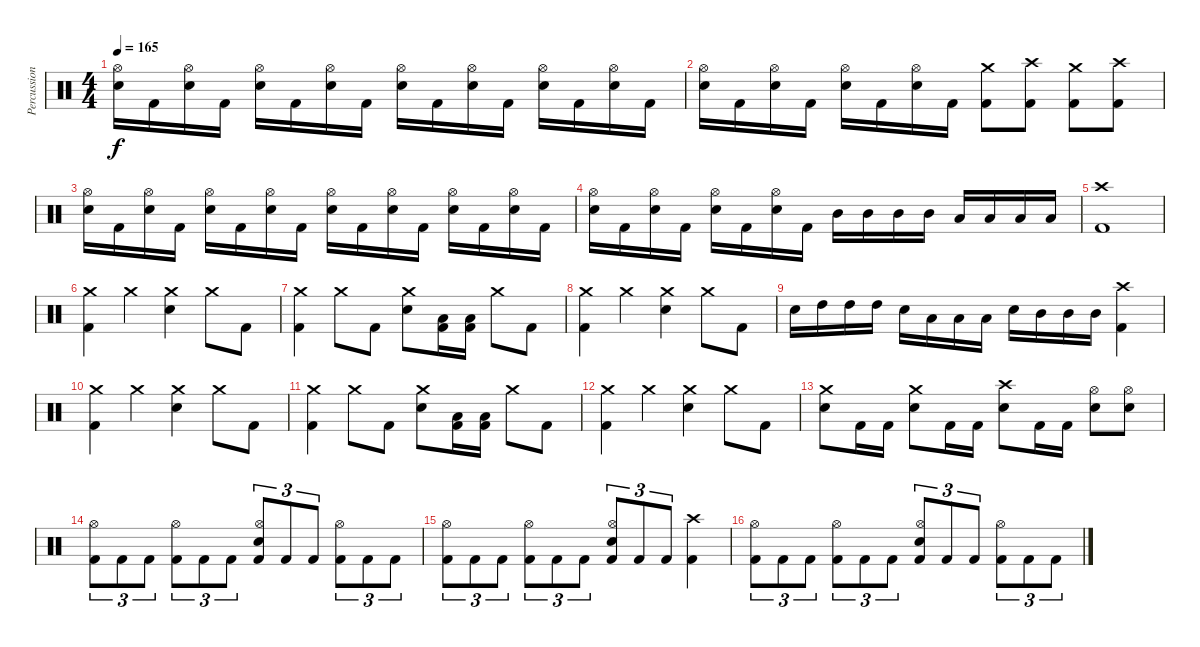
\track ("Percussion" "Percussion") {instrument percussion}
\staff {score}
\articulation defaults
\ts (4 4)
\tempo 165
\clef neutral
\ks c
("Snare (hit) 2" "Hi-Hat (open)").16{dy f} "Kick (hit) 2".16 ("Snare (hit) 2" "Hi-Hat (open)").16 "Kick (hit) 2".16 ("Snare (hit) 2" "Hi-Hat (open)").16 "Kick (hit) 2".16 ("Snare (hit) 2" "Hi-Hat (open)").16 "Kick (hit) 2".16 ("Snare (hit) 2" "Hi-Hat (open)").16 "Kick (hit) 2".16 ("Snare (hit) 2" "Hi-Hat (open)").16 "Kick (hit) 2".16 ("Snare (hit) 2" "Hi-Hat (open)").16 "Kick (hit) 2".16 ("Snare (hit) 2" "Hi-Hat (open)").16 "Kick (hit) 2".16 |
("Snare (hit) 2" "Hi-Hat (open)").16 "Kick (hit) 2".16 ("Snare (hit) 2" "Hi-Hat (open)").16 "Kick (hit) 2".16 ("Snare (hit) 2" "Hi-Hat (open)").16 "Kick (hit) 2".16 ("Snare (hit) 2" "Hi-Hat (open)").16 "Kick (hit) 2".16 ("Kick (hit) 2" "Crash medium (hit)").8 ("Kick (hit) 2" "Crash high (hit)").8 ("Kick (hit) 2" "Crash medium (hit)").8 ("Kick (hit) 2" "Crash high (hit)").8 |
("Snare (hit) 2" "Hi-Hat (open)").16 "Kick (hit) 2".16 ("Snare (hit) 2" "Hi-Hat (open)").16 "Kick (hit) 2".16 ("Snare (hit) 2" "Hi-Hat (open)").16 "Kick (hit) 2".16 ("Snare (hit) 2" "Hi-Hat (open)").16 "Kick (hit) 2".16 ("Snare (hit) 2" "Hi-Hat (open)").16 "Kick (hit) 2".16 ("Snare (hit) 2" "Hi-Hat (open)").16 "Kick (hit) 2".16 ("Snare (hit) 2" "Hi-Hat (open)").16 "Kick (hit) 2".16 ("Snare (hit) 2" "Hi-Hat (open)").16 "Kick (hit) 2".16 |
("Snare (hit) 2" "Hi-Hat (open)").16 "Kick (hit) 2".16 ("Snare (hit) 2" "Hi-Hat (open)").16 "Kick (hit) 2".16 ("Snare (hit) 2" "Hi-Hat (open)").16 "Kick (hit) 2".16 ("Snare (hit) 2" "Hi-Hat (open)").16 "Kick (hit) 2".16 "Mid Tom (hit)".16 "Mid Tom (hit)".16 "Mid Tom (hit)".16 "Mid Tom (hit)".16 "Low Tom (hit)".16 "Low Tom (hit)".16 "Low Tom (hit)".16 "Low Tom (hit)".16 |
("Kick (hit) 2" "Crash high (hit)").1 |
("Kick (hit) 2" "Crash medium (hit)").4 "Crash medium (hit)".4 ("Snare (hit) 2" "Crash medium (hit)").4 "Crash medium (hit)".8 "Kick (hit) 2".8 |
("Kick (hit) 2" "Crash medium (hit)").4 "Crash medium (hit)".8 "Kick (hit) 2".8 ("Snare (hit) 2" "Crash medium (hit)").8 ("Kick (hit) 2" "Low Tom (hit)").16 ("Kick (hit) 2" "Low Tom (hit)").16 "Crash medium (hit)".8 "Kick (hit) 2".8 |
("Kick (hit) 2" "Crash medium (hit)").4 "Crash medium (hit)".4 ("Snare (hit) 2" "Crash medium (hit)").4 "Crash medium (hit)".8 "Kick (hit) 2".8 |
"Snare (hit) 2".16 "High Tom (hit)".16 "High Tom (hit)".16 "High Tom (hit)".16 "Snare (hit) 2".16 "Low Tom (hit)".16 "Low Tom (hit)".16 "Low Tom (hit)".16 "Snare (hit) 2".16 "Mid Tom (hit)".16 "Mid Tom (hit)".16 "Mid Tom (hit)".16 ("Kick (hit) 2" "Crash high (hit)").4 |
("Kick (hit) 2" "Crash medium (hit)").4 "Crash medium (hit)".4 ("Snare (hit) 2" "Crash medium (hit)").4 "Crash medium (hit)".8 "Kick (hit) 2".8 |
("Kick (hit) 2" "Crash medium (hit)").4 "Crash medium (hit)".8 "Kick (hit) 2".8 ("Snare (hit) 2" "Crash medium (hit)").8 ("Kick (hit) 2" "Low Tom (hit)").16 ("Kick (hit) 2" "Low Tom (hit)").16 "Crash medium (hit)".8 "Kick (hit) 2".8 |
("Kick (hit) 2" "Crash medium (hit)").4 "Crash medium (hit)".4 ("Snare (hit) 2" "Crash medium (hit)").4 "Crash medium (hit)".8 "Kick (hit) 2".8 |
("Snare (hit) 2" "Crash medium (hit)").8 "Kick (hit) 2".16 "Kick (hit) 2".16 ("Snare (hit) 2" "Crash medium (hit)").8 "Kick (hit) 2".16 "Kick (hit) 2".16 ("Snare (hit) 2" "Crash high (hit)").8 "Kick (hit) 2".16 "Kick (hit) 2".16 ("Snare (hit) 2" "Hi-Hat (open)").8 ("Snare (hit) 2" "Hi-Hat (open)").8 |
("Kick (hit) 2" "Hi-Hat (open)").8{tu (3 2)} "Kick (hit) 2".8{tu (3 2)} "Kick (hit) 2".8{tu (3 2)} ("Kick (hit) 2" "Hi-Hat (open)").8{tu (3 2)} "Kick (hit) 2".8{tu (3 2)} "Kick (hit) 2".8{tu (3 2)} ("Kick (hit) 2" "Hi-Hat (open)" "Snare (hit) 2").8{tu (3 2)} "Kick (hit) 2".8{tu (3 2)} "Kick (hit) 2".8{tu (3 2)} ("Kick (hit) 2" "Hi-Hat (open)").8{tu (3 2)} "Kick (hit) 2".8{tu (3 2)} "Kick (hit) 2".8{tu (3 2)} |
("Kick (hit) 2" "Hi-Hat (open)").8{tu (3 2)} "Kick (hit) 2".8{tu (3 2)} "Kick (hit) 2".8{tu (3 2)} ("Kick (hit) 2" "Hi-Hat (open)").8{tu (3 2)} "Kick (hit) 2".8{tu (3 2)} "Kick (hit) 2".8{tu (3 2)} ("Kick (hit) 2" "Hi-Hat (open)" "Snare (hit) 2").8{tu (3 2)} "Kick (hit) 2".8{tu (3 2)} "Kick (hit) 2".8{tu (3 2)} ("Kick (hit) 2" "Crash high (hit)").4 |
("Kick (hit) 2" "Hi-Hat (open)").8{tu (3 2)} "Kick (hit) 2".8{tu (3 2)} "Kick (hit) 2".8{tu (3 2)} ("Kick (hit) 2" "Hi-Hat (open)").8{tu (3 2)} "Kick (hit) 2".8{tu (3 2)} "Kick (hit) 2".8{tu (3 2)} ("Kick (hit) 2" "Hi-Hat (open)" "Snare (hit) 2").8{tu (3 2)} "Kick (hit) 2".8{tu (3 2)} "Kick (hit) 2".8{tu (3 2)} ("Kick (hit) 2" "Hi-Hat (open)").8{tu (3 2)} "Kick (hit) 2".8{tu (3 2)} "Kick (hit) 2".8{tu (3 2)}
